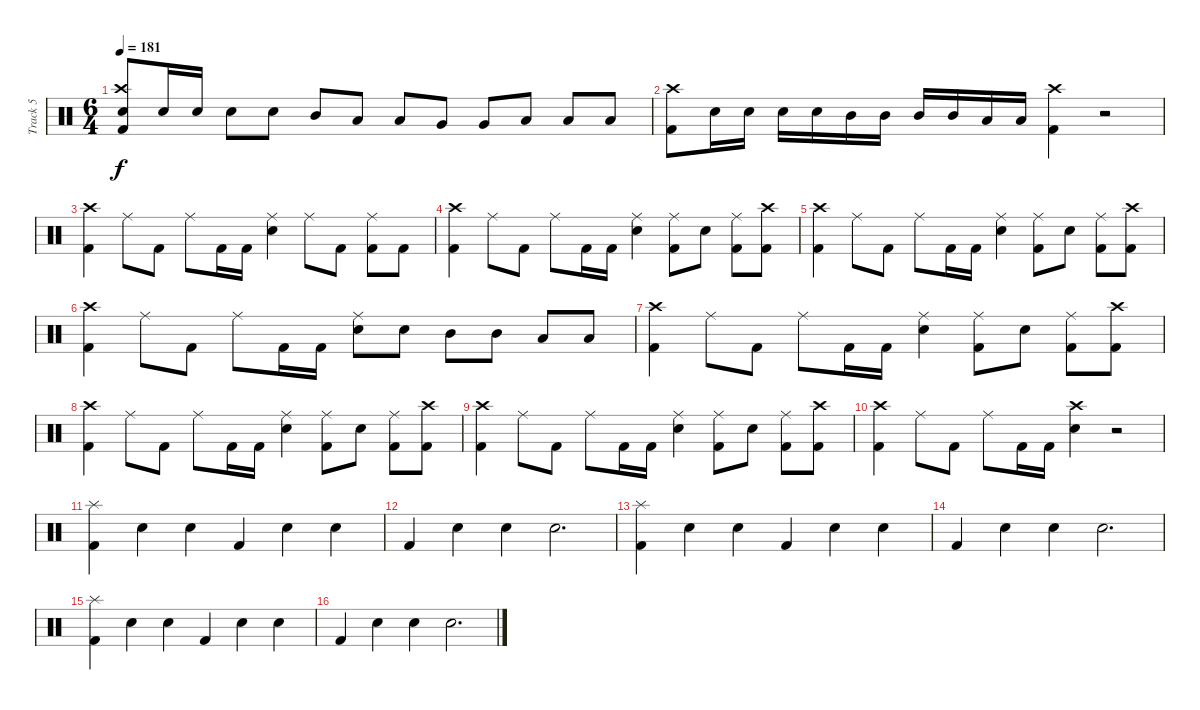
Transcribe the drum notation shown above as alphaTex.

\track ("Track 5" "Track 5") {instrument percussion}
\staff {score}
\articulation defaults
\ts (6 4)
\tempo 181
\clef neutral
\ks c
("Kick (hit) 2" "Crash high (hit)" "Electric Snare (hit)").8{dy f} "Electric Snare (hit)".16 "Electric Snare (hit)".16 "Electric Snare (hit)".8 "Electric Snare (hit)".8 "Mid Tom (hit)".8 "Low Tom (hit)".8 "Low Tom (hit)".8 "Very Low Tom (hit)".8 "Very Low Tom (hit)".8 "Low Floor Tom (hit)".8 "Low Floor Tom (hit)".8 "Low Floor Tom (hit)".8 |
("Kick (hit) 2" "Crash high (hit)").8 "Electric Snare (hit)".16 "Electric Snare (hit)".16 "Electric Snare (hit)".16 "Electric Snare (hit)".16 "Mid Tom (hit)".16 "Mid Tom (hit)".16 "Mid Tom (hit)".16 "Mid Tom (hit)".16 "Low Tom (hit)".16 "Low Tom (hit)".16 ("Kick (hit) 2" "Crash high (hit)").4 r.2 |
("Kick (hit) 2" "Crash high (hit)").4 "Ride (middle)".8 "Kick (hit) 2".8 "Ride (middle)".8 "Kick (hit) 2".16 "Kick (hit) 2".16 ("Electric Snare (hit)" "Ride (middle)").4 "Ride (middle)".8 "Kick (hit) 2".8 ("Kick (hit) 2" "Ride (middle)").8 "Kick (hit) 2".8 |
("Kick (hit) 2" "Crash high (hit)").4 "Ride (middle)".8 "Kick (hit) 2".8 "Ride (middle)".8 "Kick (hit) 2".16 "Kick (hit) 2".16 ("Electric Snare (hit)" "Ride (middle)").4 ("Ride (middle)" "Kick (hit) 2").8 "Electric Snare (hit)".8 ("Ride (middle)" "Kick (hit) 2").8 ("Kick (hit) 2" "Crash high (hit)").8 |
("Kick (hit) 2" "Crash high (hit)").4 "Ride (middle)".8 "Kick (hit) 2".8 "Ride (middle)".8 "Kick (hit) 2".16 "Kick (hit) 2".16 ("Electric Snare (hit)" "Ride (middle)").4 ("Ride (middle)" "Kick (hit) 2").8 "Electric Snare (hit)".8 ("Ride (middle)" "Kick (hit) 2").8 ("Kick (hit) 2" "Crash high (hit)").8 |
("Kick (hit) 2" "Crash high (hit)").4 "Ride (middle)".8 "Kick (hit) 2".8 "Ride (middle)".8 "Kick (hit) 2".16 "Kick (hit) 2".16 ("Electric Snare (hit)" "Ride (middle)").8 "Electric Snare (hit)".8 "Mid Tom (hit)".8 "Mid Tom (hit)".8 "Low Tom (hit)".8 "Low Tom (hit)".8 |
("Kick (hit) 2" "Crash high (hit)").4 "Ride (middle)".8 "Kick (hit) 2".8 "Ride (middle)".8 "Kick (hit) 2".16 "Kick (hit) 2".16 ("Electric Snare (hit)" "Ride (middle)").4 ("Ride (middle)" "Kick (hit) 2").8 "Electric Snare (hit)".8 ("Ride (middle)" "Kick (hit) 2").8 ("Kick (hit) 2" "Crash high (hit)").8 |
("Kick (hit) 2" "Crash high (hit)").4 "Ride (middle)".8 "Kick (hit) 2".8 "Ride (middle)".8 "Kick (hit) 2".16 "Kick (hit) 2".16 ("Electric Snare (hit)" "Ride (middle)").4 ("Ride (middle)" "Kick (hit) 2").8 "Electric Snare (hit)".8 ("Ride (middle)" "Kick (hit) 2").8 ("Kick (hit) 2" "Crash high (hit)").8 |
("Kick (hit) 2" "Crash high (hit)").4 "Ride (middle)".8 "Kick (hit) 2".8 "Ride (middle)".8 "Kick (hit) 2".16 "Kick (hit) 2".16 ("Electric Snare (hit)" "Ride (middle)").4 ("Ride (middle)" "Kick (hit) 2").8 "Electric Snare (hit)".8 ("Ride (middle)" "Kick (hit) 2").8 ("Kick (hit) 2" "Crash high (hit)").8 |
("Kick (hit) 2" "Crash high (hit)").4 "Ride (middle)".8 "Kick (hit) 2".8 "Ride (middle)".8 "Kick (hit) 2".16 "Kick (hit) 2".16 ("Electric Snare (hit)" "Crash high (hit)").4 r.2 |
("Splash (hit)" "Kick (hit) 2").4 "Electric Snare (hit)".4 "Electric Snare (hit)".4 "Kick (hit) 2".4 "Electric Snare (hit)".4 "Electric Snare (hit)".4 |
"Kick (hit) 2".4 "Electric Snare (hit)".4 "Electric Snare (hit)".4 "Electric Snare (hit)".2{d} |
("Splash (hit)" "Kick (hit) 2").4 "Electric Snare (hit)".4 "Electric Snare (hit)".4 "Kick (hit) 2".4 "Electric Snare (hit)".4 "Electric Snare (hit)".4 |
"Kick (hit) 2".4 "Electric Snare (hit)".4 "Electric Snare (hit)".4 "Electric Snare (hit)".2{d} |
("Splash (hit)" "Kick (hit) 2").4 "Electric Snare (hit)".4 "Electric Snare (hit)".4 "Kick (hit) 2".4 "Electric Snare (hit)".4 "Electric Snare (hit)".4 |
"Kick (hit) 2".4 "Electric Snare (hit)".4 "Electric Snare (hit)".4 "Electric Snare (hit)".2{d}
